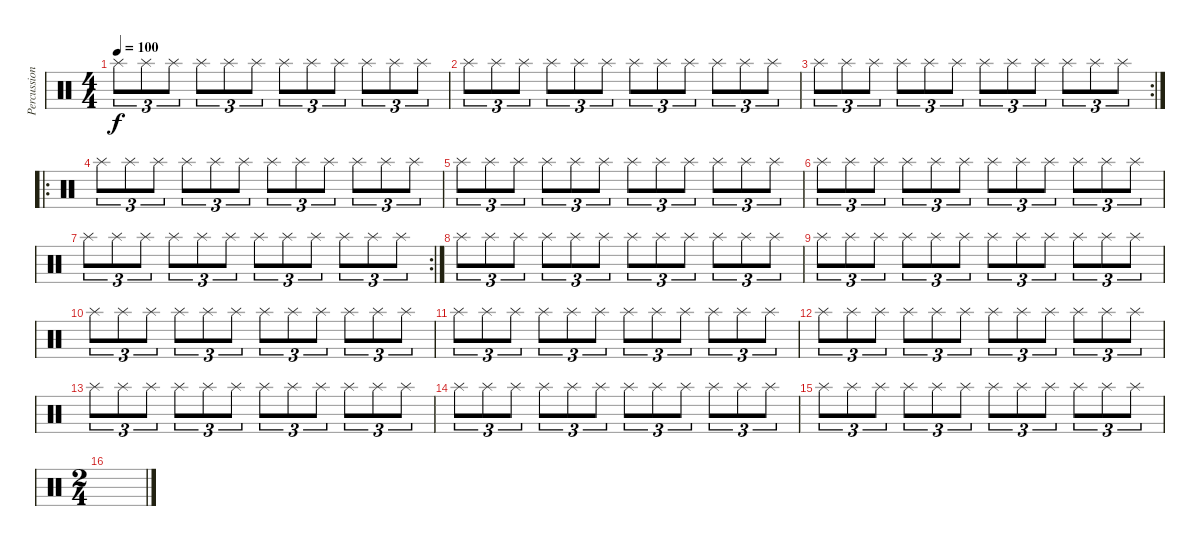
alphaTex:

\track ("Percussion" "Percussion") {instrument percussion}
\staff {score}
\articulation defaults
\ts (4 4)
\tempo 100
\clef neutral
\ks c "Splash (hit)".8{tu (3 2) dy f} "Splash (hit)".8{tu (3 2)} "Splash (hit)".8{tu (3 2)} "Splash (hit)".8{tu (3 2)} "Splash (hit)".8{tu (3 2)} "Splash (hit)".8{tu (3 2)} "Splash (hit)".8{tu (3 2)} "Splash (hit)".8{tu (3 2)} "Splash (hit)".8{tu (3 2)} "Splash (hit)".8{tu (3 2)} "Splash (hit)".8{tu (3 2)} "Splash (hit)".8{tu (3 2)}
|
"Splash (hit)".8{tu (3 2)} "Splash (hit)".8{tu (3 2)} "Splash (hit)".8{tu (3 2)} "Splash (hit)".8{tu (3 2)} "Splash (hit)".8{tu (3 2)} "Splash (hit)".8{tu (3 2)} "Splash (hit)".8{tu (3 2)} "Splash (hit)".8{tu (3 2)} "Splash (hit)".8{tu (3 2)} "Splash (hit)".8{tu (3 2)} "Splash (hit)".8{tu (3 2)} "Splash (hit)".8{tu (3 2)} |
\rc 2 "Splash (hit)".8{tu (3 2)} "Splash (hit)".8{tu (3 2)} "Splash (hit)".8{tu (3 2)} "Splash (hit)".8{tu (3 2)} "Splash (hit)".8{tu (3 2)} "Splash (hit)".8{tu (3 2)} "Splash (hit)".8{tu (3 2)} "Splash (hit)".8{tu (3 2)} "Splash (hit)".8{tu (3 2)} "Splash (hit)".8{tu (3 2)} "Splash (hit)".8{tu (3 2)} "Splash (hit)".8{tu (3 2)}
|
\ro "Splash (hit)".8{tu (3 2)} "Splash (hit)".8{tu (3 2)} "Splash (hit)".8{tu (3 2)} "Splash (hit)".8{tu (3 2)} "Splash (hit)".8{tu (3 2)} "Splash (hit)".8{tu (3 2)} "Splash (hit)".8{tu (3 2)} "Splash (hit)".8{tu (3 2)} "Splash (hit)".8{tu (3 2)} "Splash (hit)".8{tu (3 2)} "Splash (hit)".8{tu (3 2)} "Splash (hit)".8{tu (3 2)}
|
"Splash (hit)".8{tu (3 2)} "Splash (hit)".8{tu (3 2)} "Splash (hit)".8{tu (3 2)} "Splash (hit)".8{tu (3 2)} "Splash (hit)".8{tu (3 2)} "Splash (hit)".8{tu (3 2)} "Splash (hit)".8{tu (3 2)} "Splash (hit)".8{tu (3 2)} "Splash (hit)".8{tu (3 2)} "Splash (hit)".8{tu (3 2)} "Splash (hit)".8{tu (3 2)} "Splash (hit)".8{tu (3 2)} |
"Splash (hit)".8{tu (3 2)} "Splash (hit)".8{tu (3 2)} "Splash (hit)".8{tu (3 2)} "Splash (hit)".8{tu (3 2)} "Splash (hit)".8{tu (3 2)} "Splash (hit)".8{tu (3 2)} "Splash (hit)".8{tu (3 2)} "Splash (hit)".8{tu (3 2)} "Splash (hit)".8{tu (3 2)} "Splash (hit)".8{tu (3 2)} "Splash (hit)".8{tu (3 2)} "Splash (hit)".8{tu (3 2)} |
\rc 2 "Splash (hit)".8{tu (3 2)} "Splash (hit)".8{tu (3 2)} "Splash (hit)".8{tu (3 2)} "Splash (hit)".8{tu (3 2)} "Splash (hit)".8{tu (3 2)} "Splash (hit)".8{tu (3 2)} "Splash (hit)".8{tu (3 2)} "Splash (hit)".8{tu (3 2)} "Splash (hit)".8{tu (3 2)} "Splash (hit)".8{tu (3 2)} "Splash (hit)".8{tu (3 2)} "Splash (hit)".8{tu (3 2)}
|
"Splash (hit)".8{tu (3 2)} "Splash (hit)".8{tu (3 2)} "Splash (hit)".8{tu (3 2)} "Splash (hit)".8{tu (3 2)} "Splash (hit)".8{tu (3 2)} "Splash (hit)".8{tu (3 2)} "Splash (hit)".8{tu (3 2)} "Splash (hit)".8{tu (3 2)} "Splash (hit)".8{tu (3 2)} "Splash (hit)".8{tu (3 2)} "Splash (hit)".8{tu (3 2)} "Splash (hit)".8{tu (3 2)} |
"Splash (hit)".8{tu (3 2)} "Splash (hit)".8{tu (3 2)} "Splash (hit)".8{tu (3 2)} "Splash (hit)".8{tu (3 2)} "Splash (hit)".8{tu (3 2)} "Splash (hit)".8{tu (3 2)} "Splash (hit)".8{tu (3 2)} "Splash (hit)".8{tu (3 2)} "Splash (hit)".8{tu (3 2)} "Splash (hit)".8{tu (3 2)} "Splash (hit)".8{tu (3 2)} "Splash (hit)".8{tu (3 2)} |
"Splash (hit)".8{tu (3 2)} "Splash (hit)".8{tu (3 2)} "Splash (hit)".8{tu (3 2)} "Splash (hit)".8{tu (3 2)} "Splash (hit)".8{tu (3 2)} "Splash (hit)".8{tu (3 2)} "Splash (hit)".8{tu (3 2)} "Splash (hit)".8{tu (3 2)} "Splash (hit)".8{tu (3 2)} "Splash (hit)".8{tu (3 2)} "Splash (hit)".8{tu (3 2)} "Splash (hit)".8{tu (3 2)} |
"Splash (hit)".8{tu (3 2)} "Splash (hit)".8{tu (3 2)} "Splash (hit)".8{tu (3 2)} "Splash (hit)".8{tu (3 2)} "Splash (hit)".8{tu (3 2)} "Splash (hit)".8{tu (3 2)} "Splash (hit)".8{tu (3 2)} "Splash (hit)".8{tu (3 2)} "Splash (hit)".8{tu (3 2)} "Splash (hit)".8{tu (3 2)} "Splash (hit)".8{tu (3 2)} "Splash (hit)".8{tu (3 2)} |
"Splash (hit)".8{tu (3 2)} "Splash (hit)".8{tu (3 2)} "Splash (hit)".8{tu (3 2)} "Splash (hit)".8{tu (3 2)} "Splash (hit)".8{tu (3 2)} "Splash (hit)".8{tu (3 2)} "Splash (hit)".8{tu (3 2)} "Splash (hit)".8{tu (3 2)} "Splash (hit)".8{tu (3 2)} "Splash (hit)".8{tu (3 2)} "Splash (hit)".8{tu (3 2)} "Splash (hit)".8{tu (3 2)} |
"Splash (hit)".8{tu (3 2)} "Splash (hit)".8{tu (3 2)} "Splash (hit)".8{tu (3 2)} "Splash (hit)".8{tu (3 2)} "Splash (hit)".8{tu (3 2)} "Splash (hit)".8{tu (3 2)} "Splash (hit)".8{tu (3 2)} "Splash (hit)".8{tu (3 2)} "Splash (hit)".8{tu (3 2)} "Splash (hit)".8{tu (3 2)} "Splash (hit)".8{tu (3 2)} "Splash (hit)".8{tu (3 2)} |
"Splash (hit)".8{tu (3 2)} "Splash (hit)".8{tu (3 2)} "Splash (hit)".8{tu (3 2)} "Splash (hit)".8{tu (3 2)} "Splash (hit)".8{tu (3 2)} "Splash (hit)".8{tu (3 2)} "Splash (hit)".8{tu (3 2)} "Splash (hit)".8{tu (3 2)} "Splash (hit)".8{tu (3 2)} "Splash (hit)".8{tu (3 2)} "Splash (hit)".8{tu (3 2)} "Splash (hit)".8{tu (3 2)} |
"Splash (hit)".8{tu (3 2)} "Splash (hit)".8{tu (3 2)} "Splash (hit)".8{tu (3 2)} "Splash (hit)".8{tu (3 2)} "Splash (hit)".8{tu (3 2)} "Splash (hit)".8{tu (3 2)} "Splash (hit)".8{tu (3 2)} "Splash (hit)".8{tu (3 2)} "Splash (hit)".8{tu (3 2)} "Splash (hit)".8{tu (3 2)} "Splash (hit)".8{tu (3 2)} "Splash (hit)".8{tu (3 2)} |
\ts (2 4)
